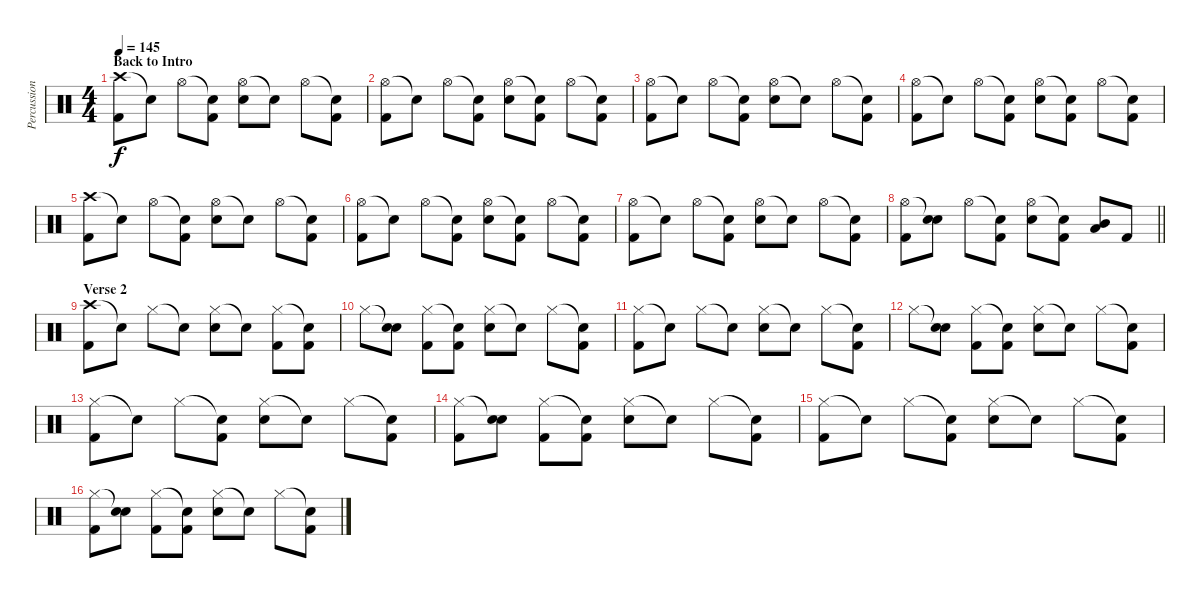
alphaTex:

\track ("Percussion" "Percussion") {instrument percussion}
\staff {score}
\articulation defaults
\ts (4 4)
\section ("" "Back to Intro")
\tempo 145
\clef neutral
\ks c
("Crash high (hit)" "Kick (hit) 2").8{dy f} "Snare (hit)"{t}.8 "Hi-Hat (open)".8 ("Snare (hit)"{t} "Kick (hit) 2").8 ("Hi-Hat (open)" "Electric Snare (hit)").8 "Snare (hit)"{t}.8 "Hi-Hat (open)".8 ("Snare (hit)"{t} "Kick (hit) 2").8 |
("Hi-Hat (open)" "Kick (hit) 2").8 "Snare (hit)"{t}.8 "Hi-Hat (open)".8 ("Snare (hit)"{t} "Kick (hit) 2").8 ("Hi-Hat (open)" "Electric Snare (hit)").8 ("Snare (hit)"{t} "Kick (hit) 2").8 "Hi-Hat (open)".8 ("Snare (hit)"{t} "Kick (hit) 2").8 |
("Hi-Hat (open)" "Kick (hit) 2").8 "Snare (hit)"{t}.8 "Hi-Hat (open)".8 ("Snare (hit)"{t} "Kick (hit) 2").8 ("Hi-Hat (open)" "Electric Snare (hit)").8 "Snare (hit)"{t}.8 "Hi-Hat (open)".8 ("Snare (hit)"{t} "Kick (hit) 2").8 |
("Hi-Hat (open)" "Kick (hit) 2").8 "Snare (hit)"{t}.8 "Hi-Hat (open)".8 ("Snare (hit)"{t} "Kick (hit) 2").8 ("Hi-Hat (open)" "Electric Snare (hit)").8 ("Snare (hit)"{t} "Kick (hit) 2").8 "Hi-Hat (open)".8 ("Snare (hit)"{t} "Kick (hit) 2").8 |
("Crash high (hit)" "Kick (hit) 2").8 "Snare (hit)"{t}.8 "Hi-Hat (open)".8 ("Snare (hit)"{t} "Kick (hit) 2").8 ("Hi-Hat (open)" "Electric Snare (hit)").8 "Snare (hit)"{t}.8 "Hi-Hat (open)".8 ("Snare (hit)"{t} "Kick (hit) 2").8 |
("Hi-Hat (open)" "Kick (hit) 2").8 "Snare (hit)"{t}.8 "Hi-Hat (open)".8 ("Snare (hit)"{t} "Kick (hit) 2").8 ("Hi-Hat (open)" "Electric Snare (hit)").8 ("Snare (hit)"{t} "Kick (hit) 2").8 "Hi-Hat (open)".8 ("Snare (hit)"{t} "Kick (hit) 2").8 |
("Hi-Hat (open)" "Kick (hit) 2").8 "Snare (hit)"{t}.8 "Hi-Hat (open)".8 ("Snare (hit)"{t} "Kick (hit) 2").8 ("Hi-Hat (open)" "Electric Snare (hit)").8 "Snare (hit)"{t}.8 "Hi-Hat (open)".8 ("Snare (hit)"{t} "Kick (hit) 2").8 |
\barLineRight lightlight
("Hi-Hat (open)" "Kick (hit) 2").8 ("Snare (hit)"{t} "Electric Snare (hit)").8 "Hi-Hat (open)".8 ("Snare (hit)"{t} "Kick (hit) 2").8 ("Hi-Hat (open)" "Electric Snare (hit)").8 ("Snare (hit)"{t} "Kick (hit) 2").8 ("Mid Tom (hit)" "Low Tom (hit)").8 "Kick (hit) 2".8 |
\section ("" "Verse 2")
("Crash high (hit)" "Kick (hit) 2").8 "Snare (hit)"{t}.8 "Hi-Hat (closed)".8 "Snare (hit)"{t}.8 ("Hi-Hat (closed)" "Electric Snare (hit)").8 "Snare (hit)"{t}.8 ("Hi-Hat (closed)" "Kick (hit) 2").8 ("Snare (hit)"{t} "Kick (hit) 2").8 |
"Hi-Hat (closed)".8 ("Snare (hit)"{t} "Electric Snare (hit)").8 ("Hi-Hat (closed)" "Kick (hit) 2").8 ("Snare (hit)"{t} "Kick (hit) 2").8 ("Hi-Hat (closed)" "Electric Snare (hit)").8 "Snare (hit)"{t}.8 "Hi-Hat (closed)".8 ("Snare (hit)"{t} "Kick (hit) 2").8 |
("Hi-Hat (closed)" "Kick (hit) 2").8 "Snare (hit)"{t}.8 "Hi-Hat (closed)".8 "Snare (hit)"{t}.8 ("Hi-Hat (closed)" "Electric Snare (hit)").8 "Snare (hit)"{t}.8 "Hi-Hat (closed)".8 ("Snare (hit)"{t} "Kick (hit) 2").8 |
"Hi-Hat (closed)".8 ("Snare (hit)"{t} "Electric Snare (hit)").8 ("Hi-Hat (closed)" "Kick (hit) 2").8 ("Snare (hit)"{t} "Kick (hit) 2").8 ("Hi-Hat (closed)" "Electric Snare (hit)").8 "Snare (hit)"{t}.8 "Hi-Hat (closed)".8 ("Snare (hit)"{t} "Kick (hit) 2").8 |
("Hi-Hat (closed)" "Kick (hit) 2").8 "Snare (hit)"{t}.8 "Hi-Hat (closed)".8 ("Snare (hit)"{t} "Kick (hit) 2").8 ("Hi-Hat (closed)" "Electric Snare (hit)").8 "Snare (hit)"{t}.8 "Hi-Hat (closed)".8 ("Snare (hit)"{t} "Kick (hit) 2").8 |
("Hi-Hat (closed)" "Kick (hit) 2").8 ("Snare (hit)"{t} "Electric Snare (hit)").8 ("Hi-Hat (closed)" "Kick (hit) 2").8 ("Snare (hit)"{t} "Kick (hit) 2").8 ("Hi-Hat (closed)" "Electric Snare (hit)").8 "Snare (hit)"{t}.8 "Hi-Hat (closed)".8 ("Snare (hit)"{t} "Kick (hit) 2").8 |
("Hi-Hat (closed)" "Kick (hit) 2").8 "Snare (hit)"{t}.8 "Hi-Hat (closed)".8 ("Snare (hit)"{t} "Kick (hit) 2").8 ("Hi-Hat (closed)" "Electric Snare (hit)").8 "Snare (hit)"{t}.8 "Hi-Hat (closed)".8 ("Snare (hit)"{t} "Kick (hit) 2").8 |
("Hi-Hat (closed)" "Kick (hit) 2").8 ("Snare (hit)"{t} "Electric Snare (hit)").8 ("Hi-Hat (closed)" "Kick (hit) 2").8 ("Snare (hit)"{t} "Kick (hit) 2").8 ("Hi-Hat (closed)" "Electric Snare (hit)").8 "Snare (hit)"{t}.8 "Hi-Hat (closed)".8 ("Snare (hit)"{t} "Kick (hit) 2").8
